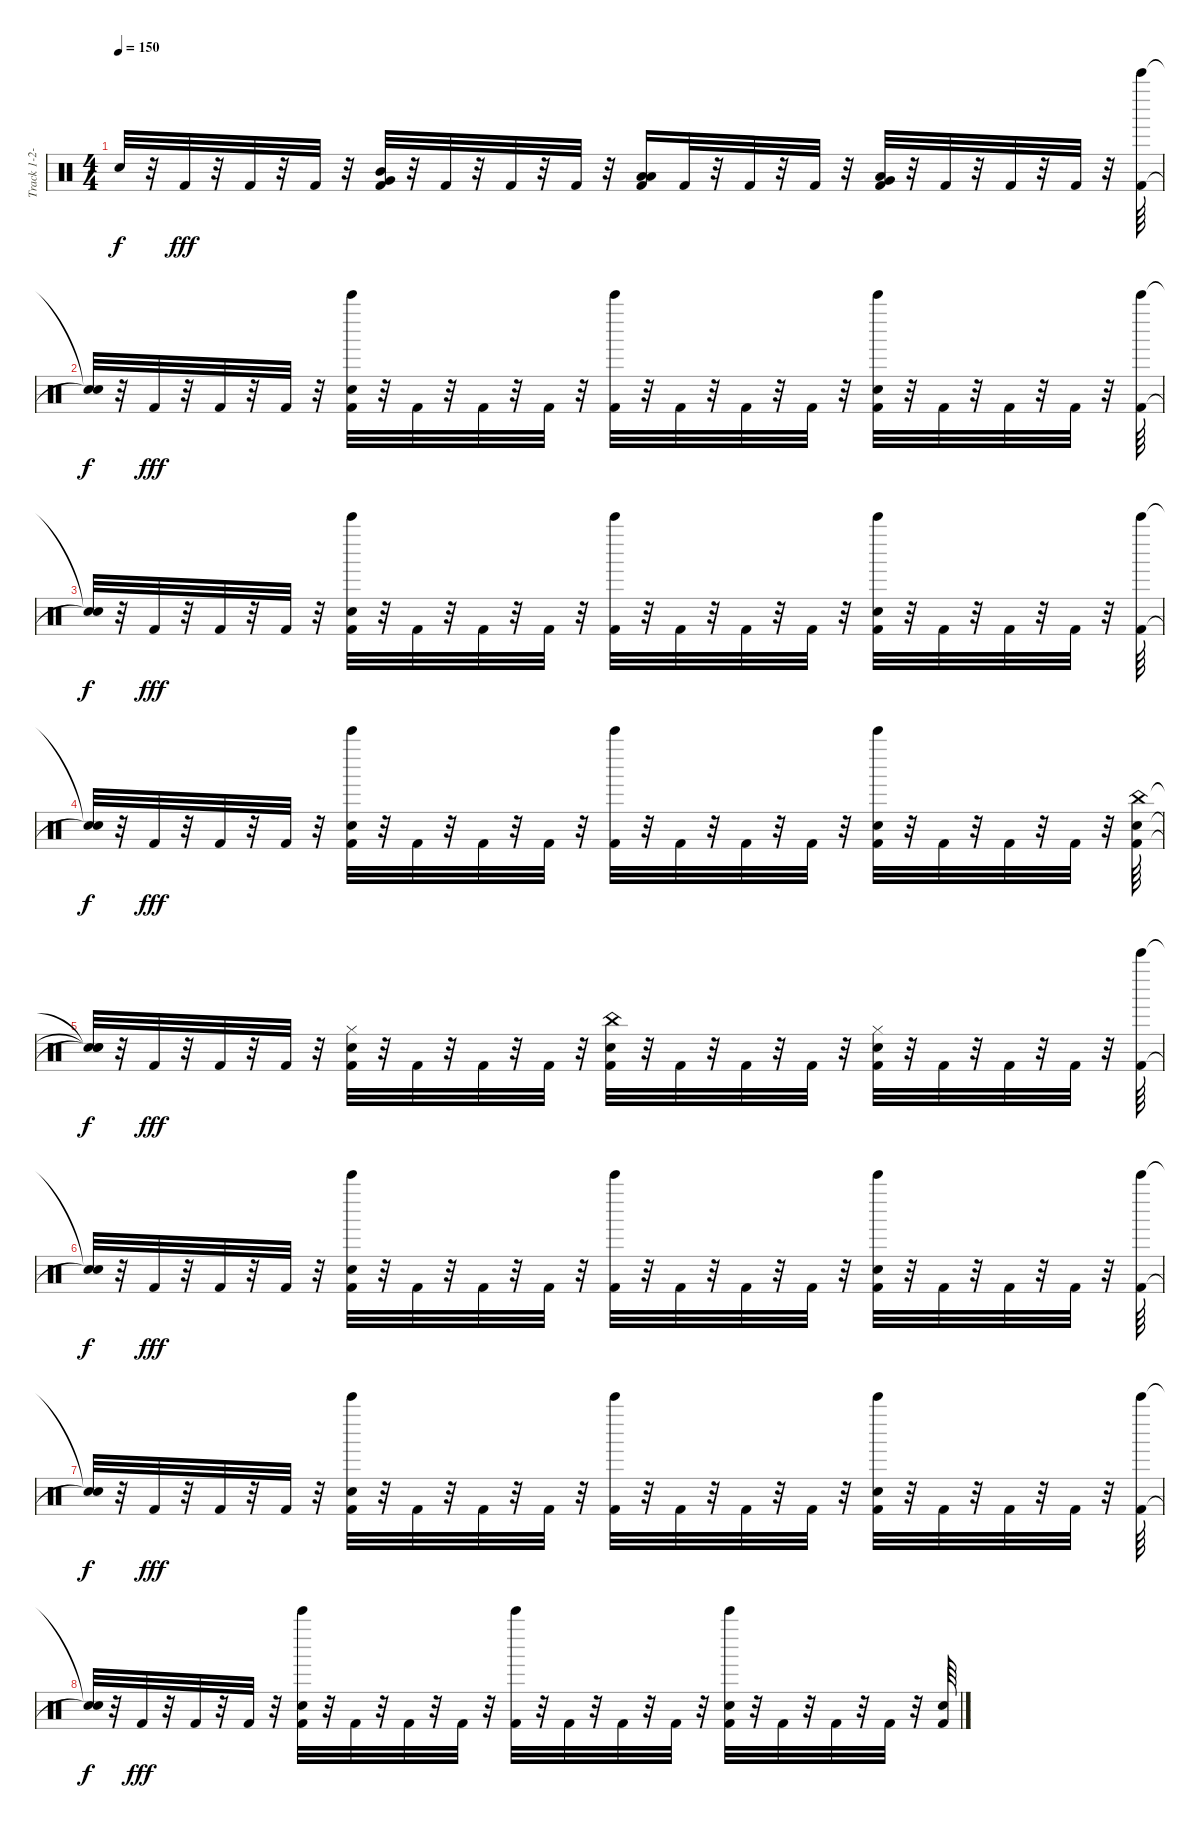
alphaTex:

\track ("Track 1-2-3-4-5-6-7-8-9-10-11-12-13-14-1" "Track 1-2-") {instrument percussion}
\staff {score}
\articulation defaults
\ts (4 4)
\tempo 150
\clef neutral
\ks c "Snare (hit)"{t}.32{dy f}
r.32 "Kick (hit) 2".32{dy fff} r.32 "Kick (hit) 2".32 r.32 "Kick (hit) 2".32 r.32 ("Mid Tom (hit)" "Kick (hit) 2" "Very Low Tom (hit)").32 r.32 "Kick (hit) 2".32 r.32 "Kick (hit) 2".32 r.32 "Kick (hit) 2".32 r.32 ("Low Tom (hit)" "Kick (hit) 2" "Low Tom (hit)").16 "Kick (hit) 2".32 r.32 "Kick (hit) 2".32 r.32 "Kick (hit) 2".32 r.32 ("Kick (hit) 2" "Very Low Tom (hit)" "Low Floor Tom (hit)").32 r.32 "Kick (hit) 2".32 r.32 "Kick (hit) 2".32 r.32 "Kick (hit) 2".32 r.32 ("Kick (hit) 2" "Bell Tree (hit)").64 |
("Snare (hit)"{t} "Snare (hit)"{t}).32{dy f} r.32 "Kick (hit) 2".32{dy fff} r.32 "Kick (hit) 2".32 r.32 "Kick (hit) 2".32 r.32 ("Bell Tree (hit)" "Kick (hit) 2" "Snare (hit) 2").32 r.32 "Kick (hit) 2".32 r.32 "Kick (hit) 2".32 r.32 "Kick (hit) 2".32 r.32 ("Kick (hit) 2" "Bell Tree (hit)").32 r.32 "Kick (hit) 2".32 r.32 "Kick (hit) 2".32 r.32 "Kick (hit) 2".32 r.32 ("Bell Tree (hit)" "Kick (hit) 2" "Snare (hit) 2").32 r.32 "Kick (hit) 2".32 r.32 "Kick (hit) 2".32 r.32 "Kick (hit) 2".32 r.32 ("Kick (hit) 2" "Bell Tree (hit)").64 |
("Snare (hit)"{t} "Snare (hit)"{t}).32{dy f} r.32 "Kick (hit) 2".32{dy fff} r.32 "Kick (hit) 2".32 r.32 "Kick (hit) 2".32 r.32 ("Bell Tree (hit)" "Kick (hit) 2" "Snare (hit) 2").32 r.32 "Kick (hit) 2".32 r.32 "Kick (hit) 2".32 r.32 "Kick (hit) 2".32 r.32 ("Kick (hit) 2" "Bell Tree (hit)").32 r.32 "Kick (hit) 2".32 r.32 "Kick (hit) 2".32 r.32 "Kick (hit) 2".32 r.32 ("Snare (hit) 2" "Bell Tree (hit)" "Kick (hit) 2").32 r.32 "Kick (hit) 2".32 r.32 "Kick (hit) 2".32 r.32 "Kick (hit) 2".32 r.32 ("Kick (hit) 2" "Bell Tree (hit)").64 |
("Snare (hit)"{t} "Snare (hit)"{t}).32{dy f} r.32 "Kick (hit) 2".32{dy fff} r.32 "Kick (hit) 2".32 r.32 "Kick (hit) 2".32 r.32 ("Bell Tree (hit)" "Snare (hit) 2" "Kick (hit) 2").32 r.32 "Kick (hit) 2".32 r.32 "Kick (hit) 2".32 r.32 "Kick (hit) 2".32 r.32 ("Kick (hit) 2" "Bell Tree (hit)").32 r.32 "Kick (hit) 2".32 r.32 "Kick (hit) 2".32 r.32 "Kick (hit) 2".32 r.32 ("Snare (hit) 2" "Bell Tree (hit)" "Kick (hit) 2").32 r.32 "Kick (hit) 2".32 r.32 "Kick (hit) 2".32 r.32 "Kick (hit) 2".32 r.32 ("Kick (hit) 2" "Snare (hit) 2" "China (hit)").64 |
("Snare (hit)"{t} "Snare (hit)"{t} "Snare (hit)"{t}).32{dy f} r.32 "Kick (hit) 2".32{dy fff} r.32 "Kick (hit) 2".32 r.32 "Kick (hit) 2".32 r.32 ("Kick (hit) 2" "Snare (hit) 2" "Hi-Hat (closed)").32 r.32 "Kick (hit) 2".32 r.32 "Kick (hit) 2".32 r.32 "Kick (hit) 2".32 r.32 ("Kick (hit) 2" "Snare (hit) 2" "China (hit)").32 r.32 "Kick (hit) 2".32 r.32 "Kick (hit) 2".32 r.32 "Kick (hit) 2".32 r.32 ("Kick (hit) 2" "Snare (hit) 2" "Hi-Hat (closed)").32 r.32 "Kick (hit) 2".32 r.32 "Kick (hit) 2".32 r.32 "Kick (hit) 2".32 r.32 ("Kick (hit) 2" "Bell Tree (hit)").64 |
("Snare (hit)"{t} "Snare (hit)"{t}).32{dy f} r.32 "Kick (hit) 2".32{dy fff} r.32 "Kick (hit) 2".32 r.32 "Kick (hit) 2".32 r.32 ("Bell Tree (hit)" "Kick (hit) 2" "Snare (hit) 2").32 r.32 "Kick (hit) 2".32 r.32 "Kick (hit) 2".32 r.32 "Kick (hit) 2".32 r.32 ("Kick (hit) 2" "Bell Tree (hit)").32 r.32 "Kick (hit) 2".32 r.32 "Kick (hit) 2".32 r.32 "Kick (hit) 2".32 r.32 ("Bell Tree (hit)" "Kick (hit) 2" "Snare (hit) 2").32 r.32 "Kick (hit) 2".32 r.32 "Kick (hit) 2".32 r.32 "Kick (hit) 2".32 r.32 ("Kick (hit) 2" "Bell Tree (hit)").64 |
("Snare (hit)"{t} "Snare (hit)"{t}).32{dy f} r.32 "Kick (hit) 2".32{dy fff} r.32 "Kick (hit) 2".32 r.32 "Kick (hit) 2".32 r.32 ("Bell Tree (hit)" "Kick (hit) 2" "Snare (hit) 2").32 r.32 "Kick (hit) 2".32 r.32 "Kick (hit) 2".32 r.32 "Kick (hit) 2".32 r.32 ("Kick (hit) 2" "Bell Tree (hit)").32 r.32 "Kick (hit) 2".32 r.32 "Kick (hit) 2".32 r.32 "Kick (hit) 2".32 r.32 ("Snare (hit) 2" "Bell Tree (hit)" "Kick (hit) 2").32 r.32 "Kick (hit) 2".32 r.32 "Kick (hit) 2".32 r.32 "Kick (hit) 2".32 r.32 ("Kick (hit) 2" "Bell Tree (hit)").64 |
("Snare (hit)"{t} "Snare (hit)"{t}).32{dy f} r.32 "Kick (hit) 2".32{dy fff} r.32 "Kick (hit) 2".32 r.32 "Kick (hit) 2".32 r.32 ("Bell Tree (hit)" "Snare (hit) 2" "Kick (hit) 2").32 r.32 "Kick (hit) 2".32 r.32 "Kick (hit) 2".32 r.32 "Kick (hit) 2".32 r.32 ("Kick (hit) 2" "Bell Tree (hit)").32 r.32 "Kick (hit) 2".32 r.32 "Kick (hit) 2".32 r.32 "Kick (hit) 2".32 r.32 ("Snare (hit) 2" "Bell Tree (hit)" "Kick (hit) 2").32 r.32 "Kick (hit) 2".32 r.32 "Kick (hit) 2".32 r.32 "Kick (hit) 2".32 r.32 ("Kick (hit) 2" "Snare (hit) 2").64
